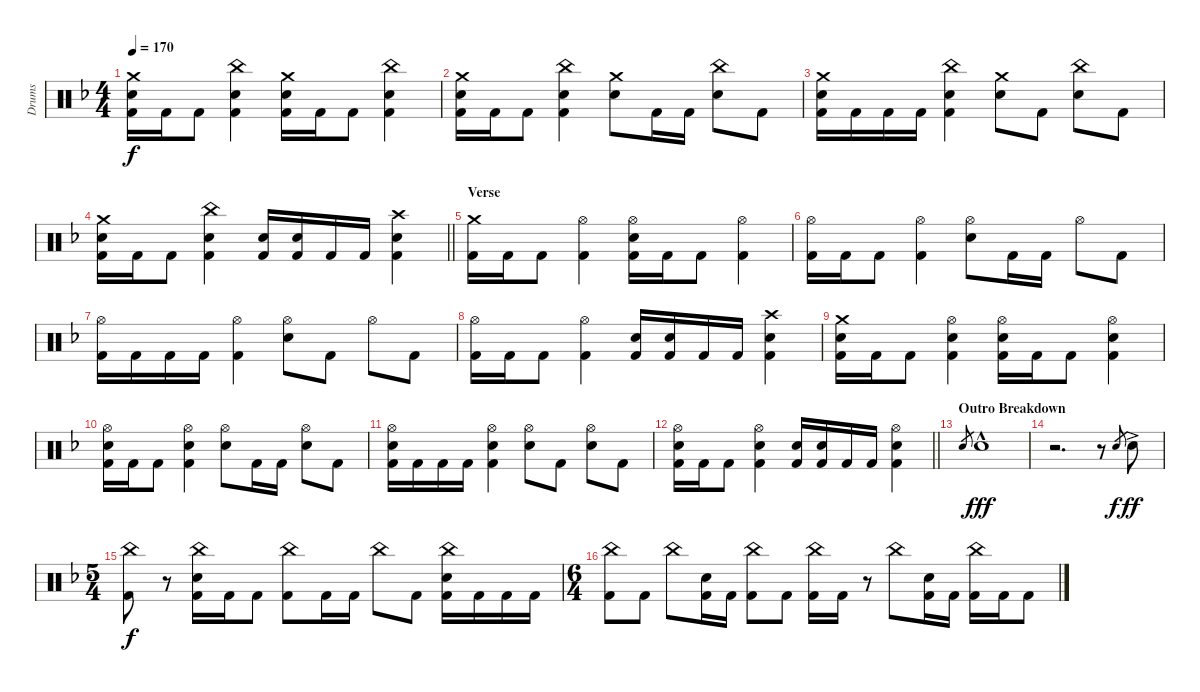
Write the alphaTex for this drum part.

\track ("Drums" "Drums") {instrument percussion}
\staff {score}
\articulation defaults
\ts (4 4)
\tempo 170
\clef neutral
\ks dminor
("Crash medium (hit)" "Electric Snare (hit)" "Kick (hit) 2").16{dy f} "Kick (hit) 2".16 "Kick (hit) 2".8 ("China (hit)" "Electric Snare (hit)" "Kick (hit) 2").4 ("Crash medium (hit)" "Electric Snare (hit)" "Kick (hit) 2").16 "Kick (hit) 2".16 "Kick (hit) 2".8 ("China (hit)" "Electric Snare (hit)" "Kick (hit) 2").4 |
("Crash medium (hit)" "Electric Snare (hit)" "Kick (hit) 2").16 "Kick (hit) 2".16 "Kick (hit) 2".8 ("China (hit)" "Electric Snare (hit)" "Kick (hit) 2").4 ("Crash medium (hit)" "Electric Snare (hit)").8 "Kick (hit) 2".16 "Kick (hit) 2".16 ("China (hit)" "Electric Snare (hit)").8 "Kick (hit) 2".8 |
("Crash medium (hit)" "Electric Snare (hit)" "Kick (hit) 2").16 "Kick (hit) 2".16 "Kick (hit) 2".16 "Kick (hit) 2".16 ("China (hit)" "Electric Snare (hit)" "Kick (hit) 2").4 ("Crash medium (hit)" "Electric Snare (hit)").8 "Kick (hit) 2".8 ("China (hit)" "Electric Snare (hit)").8 "Kick (hit) 2".8 |
\barLineRight lightlight
("Crash medium (hit)" "Electric Snare (hit)" "Kick (hit) 2").16 "Kick (hit) 2".16 "Kick (hit) 2".8 ("China (hit)" "Electric Snare (hit)" "Kick (hit) 2").4 ("Electric Snare (hit)" "Kick (hit) 2").16 ("Electric Snare (hit)" "Kick (hit) 2").16 "Kick (hit) 2".16 "Kick (hit) 2".16 ("Crash high (hit)" "Electric Snare (hit)" "Kick (hit) 2").4 |
\section ("" "Verse")
("Crash medium (hit)" "Kick (hit) 2").16 "Kick (hit) 2".16 "Kick (hit) 2".8 ("Hi-Hat (open)" "Kick (hit) 2").4 ("Hi-Hat (open)" "Electric Snare (hit)" "Kick (hit) 2").16 "Kick (hit) 2".16 "Kick (hit) 2".8 ("Hi-Hat (open)" "Kick (hit) 2").4 |
("Hi-Hat (open)" "Kick (hit) 2").16 "Kick (hit) 2".16 "Kick (hit) 2".8 ("Hi-Hat (open)" "Kick (hit) 2").4 ("Hi-Hat (open)" "Electric Snare (hit)").8 "Kick (hit) 2".16 "Kick (hit) 2".16 "Hi-Hat (open)".8 "Kick (hit) 2".8 |
("Hi-Hat (open)" "Kick (hit) 2").16 "Kick (hit) 2".16 "Kick (hit) 2".16 "Kick (hit) 2".16 ("Hi-Hat (open)" "Kick (hit) 2").4 ("Hi-Hat (open)" "Electric Snare (hit)").8 "Kick (hit) 2".8 "Hi-Hat (open)".8 "Kick (hit) 2".8 |
("Hi-Hat (open)" "Kick (hit) 2").16 "Kick (hit) 2".16 "Kick (hit) 2".8 ("Hi-Hat (open)" "Kick (hit) 2").4 ("Electric Snare (hit)" "Kick (hit) 2").16 ("Electric Snare (hit)" "Kick (hit) 2").16 "Kick (hit) 2".16 "Kick (hit) 2".16 ("Crash high (hit)" "Electric Snare (hit)" "Kick (hit) 2").4 |
("Crash medium (hit)" "Electric Snare (hit)" "Kick (hit) 2").16 "Kick (hit) 2".16 "Kick (hit) 2".8 ("Hi-Hat (open)" "Electric Snare (hit)" "Kick (hit) 2").4 ("Hi-Hat (open)" "Electric Snare (hit)" "Kick (hit) 2").16 "Kick (hit) 2".16 "Kick (hit) 2".8 ("Hi-Hat (open)" "Electric Snare (hit)" "Kick (hit) 2").4 |
("Hi-Hat (open)" "Electric Snare (hit)" "Kick (hit) 2").16 "Kick (hit) 2".16 "Kick (hit) 2".8 ("Hi-Hat (open)" "Electric Snare (hit)" "Kick (hit) 2").4 ("Hi-Hat (open)" "Electric Snare (hit)").8 "Kick (hit) 2".16 "Kick (hit) 2".16 ("Hi-Hat (open)" "Electric Snare (hit)").8 "Kick (hit) 2".8 |
("Hi-Hat (open)" "Electric Snare (hit)" "Kick (hit) 2").16 "Kick (hit) 2".16 "Kick (hit) 2".16 "Kick (hit) 2".16 ("Hi-Hat (open)" "Electric Snare (hit)" "Kick (hit) 2").4 ("Hi-Hat (open)" "Electric Snare (hit)").8 "Kick (hit) 2".8 ("Hi-Hat (open)" "Electric Snare (hit)").8 "Kick (hit) 2".8 |
\barLineRight lightlight
("Hi-Hat (open)" "Electric Snare (hit)" "Kick (hit) 2").16 "Kick (hit) 2".16 "Kick (hit) 2".8 ("Hi-Hat (open)" "Electric Snare (hit)" "Kick (hit) 2").4 ("Electric Snare (hit)" "Kick (hit) 2").16 ("Electric Snare (hit)" "Kick (hit) 2").16 "Kick (hit) 2".16 "Kick (hit) 2".16 ("Hi-Hat (open)" "Electric Snare (hit)" "Kick (hit) 2").4 |
\section ("" "Outro Breakdown")
"Electric Snare (hit)".8{gr} "Electric Snare (hit)"{hac}.1{dy fff} |
r.2{d} r.8 "Electric Snare (hit)".8{gr dy f} "Electric Snare (hit)"{ac}.8{dy ff} |
\ts (5 4)
("China (hit)" "Kick (hit) 2").8{dy f} r.8 ("China (hit)" "Electric Snare (hit)" "Kick (hit) 2").16 "Kick (hit) 2".16 "Kick (hit) 2".8 ("China (hit)" "Kick (hit) 2").8 "Kick (hit) 2".16 "Kick (hit) 2".16 "China (hit)".8 "Kick (hit) 2".8 ("China (hit)" "Electric Snare (hit)" "Kick (hit) 2").16 "Kick (hit) 2".16 "Kick (hit) 2".16 "Kick (hit) 2".16 |
\ts (6 4)
("China (hit)" "Kick (hit) 2").8 "Kick (hit) 2".8 "China (hit)".8 ("Electric Snare (hit)" "Kick (hit) 2").16 "Kick (hit) 2".16 ("China (hit)" "Kick (hit) 2").8 "Kick (hit) 2".8 ("China (hit)" "Kick (hit) 2").16 "Kick (hit) 2".16 r.8 "China (hit)".8 ("Electric Snare (hit)" "Kick (hit) 2").16 "Kick (hit) 2".16 ("China (hit)" "Kick (hit) 2").16 "Kick (hit) 2".16 "Kick (hit) 2".8
